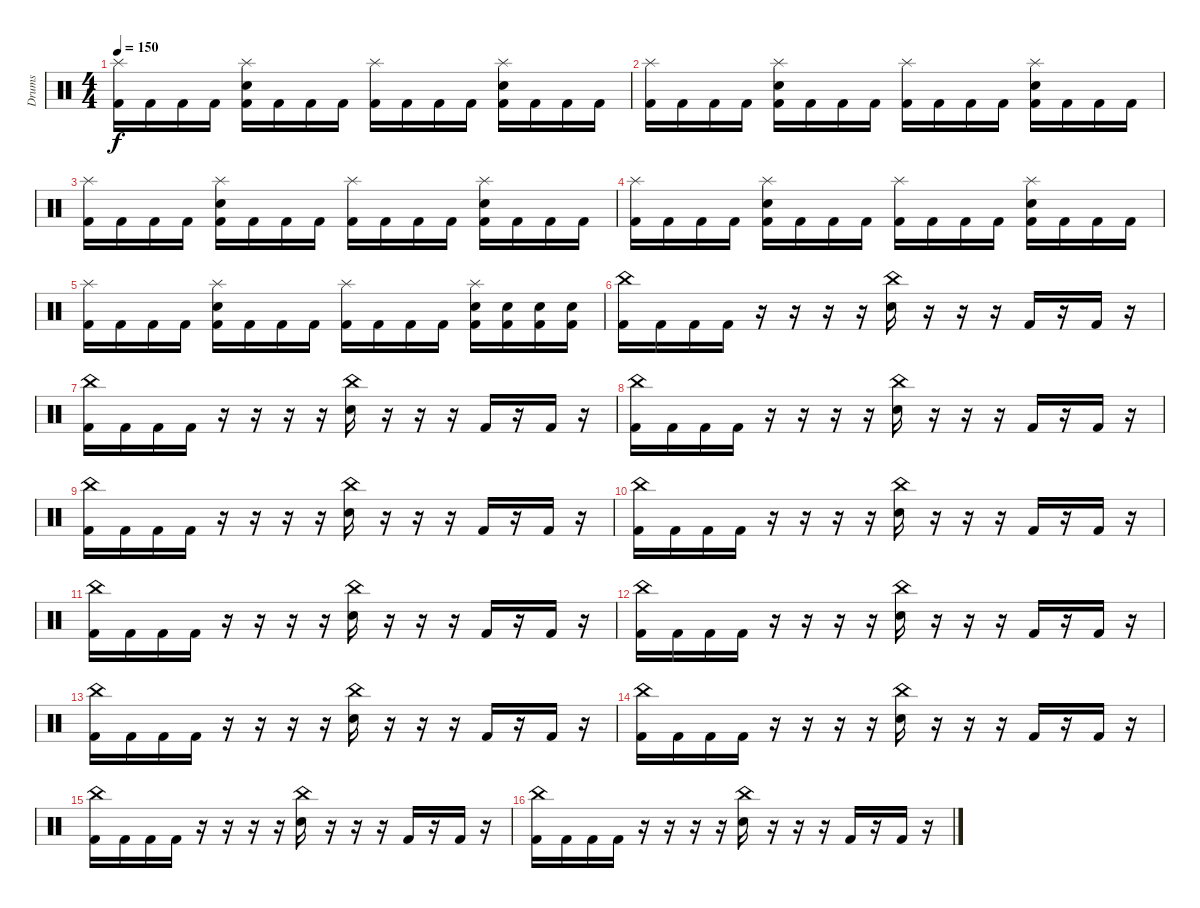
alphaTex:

\track ("Drums" "Drums") {instrument percussion}
\staff {score}
\articulation defaults
\ts (4 4)
\tempo 150
\clef neutral
\ks c
("Splash (hit)" "Kick (hit) 2").16{dy f} "Kick (hit) 2".16 "Kick (hit) 2".16 "Kick (hit) 2".16 ("Splash (hit)" "Electric Snare (hit)" "Kick (hit) 2").16 "Kick (hit) 2".16 "Kick (hit) 2".16 "Kick (hit) 2".16 ("Splash (hit)" "Kick (hit) 2").16 "Kick (hit) 2".16 "Kick (hit) 2".16 "Kick (hit) 2".16 ("Splash (hit)" "Electric Snare (hit)" "Kick (hit) 2").16 "Kick (hit) 2".16 "Kick (hit) 2".16 "Kick (hit) 2".16 |
("Splash (hit)" "Kick (hit) 2").16 "Kick (hit) 2".16 "Kick (hit) 2".16 "Kick (hit) 2".16 ("Splash (hit)" "Electric Snare (hit)" "Kick (hit) 2").16 "Kick (hit) 2".16 "Kick (hit) 2".16 "Kick (hit) 2".16 ("Splash (hit)" "Kick (hit) 2").16 "Kick (hit) 2".16 "Kick (hit) 2".16 "Kick (hit) 2".16 ("Splash (hit)" "Electric Snare (hit)" "Kick (hit) 2").16 "Kick (hit) 2".16 "Kick (hit) 2".16 "Kick (hit) 2".16 |
("Splash (hit)" "Kick (hit) 2").16 "Kick (hit) 2".16 "Kick (hit) 2".16 "Kick (hit) 2".16 ("Splash (hit)" "Electric Snare (hit)" "Kick (hit) 2").16 "Kick (hit) 2".16 "Kick (hit) 2".16 "Kick (hit) 2".16 ("Splash (hit)" "Kick (hit) 2").16 "Kick (hit) 2".16 "Kick (hit) 2".16 "Kick (hit) 2".16 ("Splash (hit)" "Electric Snare (hit)" "Kick (hit) 2").16 "Kick (hit) 2".16 "Kick (hit) 2".16 "Kick (hit) 2".16 |
("Splash (hit)" "Kick (hit) 2").16 "Kick (hit) 2".16 "Kick (hit) 2".16 "Kick (hit) 2".16 ("Splash (hit)" "Electric Snare (hit)" "Kick (hit) 2").16 "Kick (hit) 2".16 "Kick (hit) 2".16 "Kick (hit) 2".16 ("Splash (hit)" "Kick (hit) 2").16 "Kick (hit) 2".16 "Kick (hit) 2".16 "Kick (hit) 2".16 ("Splash (hit)" "Electric Snare (hit)" "Kick (hit) 2").16 "Kick (hit) 2".16 "Kick (hit) 2".16 "Kick (hit) 2".16 |
("Splash (hit)" "Kick (hit) 2").16 "Kick (hit) 2".16 "Kick (hit) 2".16 "Kick (hit) 2".16 ("Splash (hit)" "Electric Snare (hit)" "Kick (hit) 2").16 "Kick (hit) 2".16 "Kick (hit) 2".16 "Kick (hit) 2".16 ("Splash (hit)" "Kick (hit) 2").16 "Kick (hit) 2".16 "Kick (hit) 2".16 "Kick (hit) 2".16 ("Splash (hit)" "Electric Snare (hit)" "Kick (hit) 2").16 ("Electric Snare (hit)" "Kick (hit) 2").16 ("Electric Snare (hit)" "Kick (hit) 2").16 ("Electric Snare (hit)" "Kick (hit) 2").16 |
("China (hit)" "Kick (hit) 2").16 "Kick (hit) 2".16 "Kick (hit) 2".16 "Kick (hit) 2".16 r.16 r.16 r.16 r.16 ("China (hit)" "Electric Snare (hit)").16 r.16 r.16 r.16 "Kick (hit) 2".16 r.16 "Kick (hit) 2".16 r.16 |
("China (hit)" "Kick (hit) 2").16 "Kick (hit) 2".16 "Kick (hit) 2".16 "Kick (hit) 2".16 r.16 r.16 r.16 r.16 ("China (hit)" "Electric Snare (hit)").16 r.16 r.16 r.16 "Kick (hit) 2".16 r.16 "Kick (hit) 2".16 r.16 |
("China (hit)" "Kick (hit) 2").16 "Kick (hit) 2".16 "Kick (hit) 2".16 "Kick (hit) 2".16 r.16 r.16 r.16 r.16 ("China (hit)" "Electric Snare (hit)").16 r.16 r.16 r.16 "Kick (hit) 2".16 r.16 "Kick (hit) 2".16 r.16 |
("China (hit)" "Kick (hit) 2").16 "Kick (hit) 2".16 "Kick (hit) 2".16 "Kick (hit) 2".16 r.16 r.16 r.16 r.16 ("China (hit)" "Electric Snare (hit)").16 r.16 r.16 r.16 "Kick (hit) 2".16 r.16 "Kick (hit) 2".16 r.16 |
("China (hit)" "Kick (hit) 2").16 "Kick (hit) 2".16 "Kick (hit) 2".16 "Kick (hit) 2".16 r.16 r.16 r.16 r.16 ("China (hit)" "Electric Snare (hit)").16 r.16 r.16 r.16 "Kick (hit) 2".16 r.16 "Kick (hit) 2".16 r.16 |
("China (hit)" "Kick (hit) 2").16 "Kick (hit) 2".16 "Kick (hit) 2".16 "Kick (hit) 2".16 r.16 r.16 r.16 r.16 ("China (hit)" "Electric Snare (hit)").16 r.16 r.16 r.16 "Kick (hit) 2".16 r.16 "Kick (hit) 2".16 r.16 |
("China (hit)" "Kick (hit) 2").16 "Kick (hit) 2".16 "Kick (hit) 2".16 "Kick (hit) 2".16 r.16 r.16 r.16 r.16 ("China (hit)" "Electric Snare (hit)").16 r.16 r.16 r.16 "Kick (hit) 2".16 r.16 "Kick (hit) 2".16 r.16 |
("China (hit)" "Kick (hit) 2").16 "Kick (hit) 2".16 "Kick (hit) 2".16 "Kick (hit) 2".16 r.16 r.16 r.16 r.16 ("China (hit)" "Electric Snare (hit)").16 r.16 r.16 r.16 "Kick (hit) 2".16 r.16 "Kick (hit) 2".16 r.16 |
("China (hit)" "Kick (hit) 2").16 "Kick (hit) 2".16 "Kick (hit) 2".16 "Kick (hit) 2".16 r.16 r.16 r.16 r.16 ("China (hit)" "Electric Snare (hit)").16 r.16 r.16 r.16 "Kick (hit) 2".16 r.16 "Kick (hit) 2".16 r.16 |
("China (hit)" "Kick (hit) 2").16 "Kick (hit) 2".16 "Kick (hit) 2".16 "Kick (hit) 2".16 r.16 r.16 r.16 r.16 ("China (hit)" "Electric Snare (hit)").16 r.16 r.16 r.16 "Kick (hit) 2".16 r.16 "Kick (hit) 2".16 r.16 |
("China (hit)" "Kick (hit) 2").16 "Kick (hit) 2".16 "Kick (hit) 2".16 "Kick (hit) 2".16 r.16 r.16 r.16 r.16 ("China (hit)" "Electric Snare (hit)").16 r.16 r.16 r.16 "Kick (hit) 2".16 r.16 "Kick (hit) 2".16 r.16
